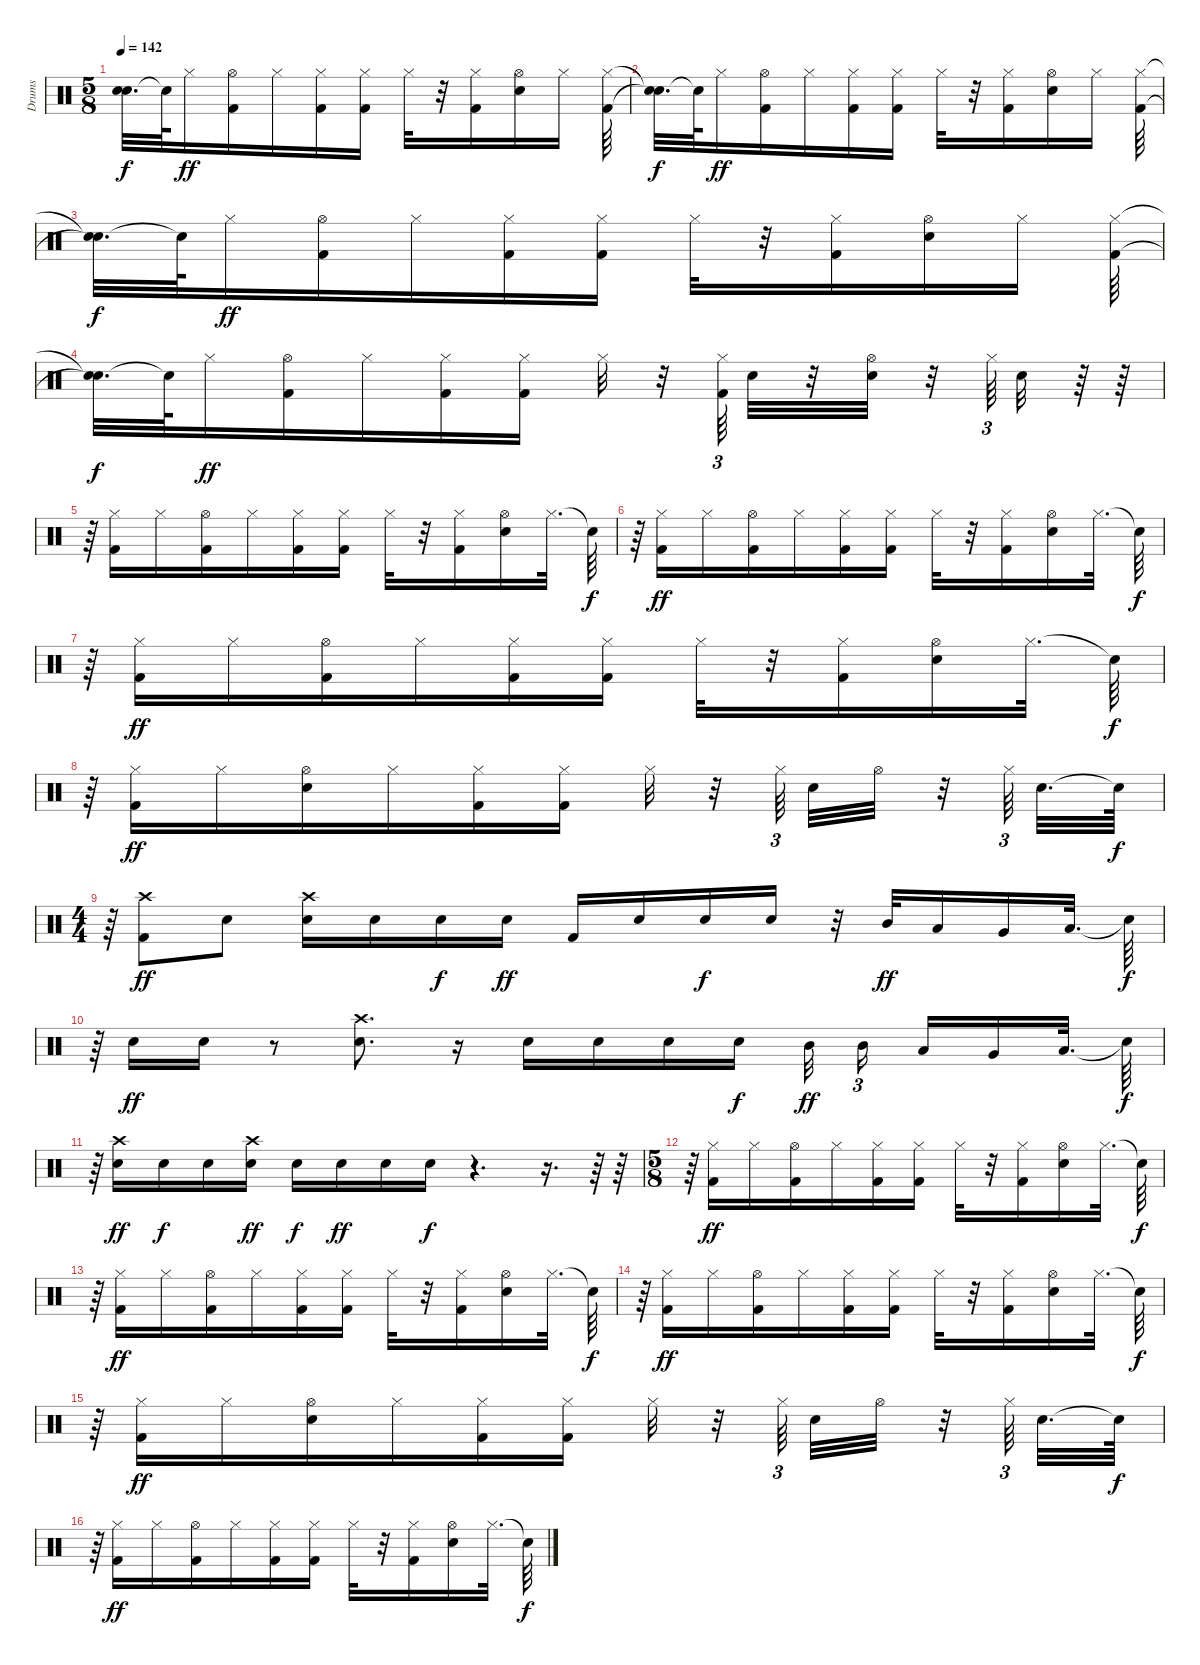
\track ("Drums                               " "Drums     ") {instrument percussion}
\staff {score}
\articulation defaults
\ts (5 8)
\tempo 142
\clef neutral
\ks c
("Snare (hit)"{t} "Snare (hit)"{t}).32{d dy f} "Snare (hit)"{t}.64 "Hi-Hat (closed)".16{dy ff} ("Kick (hit) 2" "Hi-Hat (open)").16 "Hi-Hat (closed)".16 ("Hi-Hat (closed)" "Kick (hit) 2").16 ("Kick (hit) 2" "Hi-Hat (closed)").16 "Hi-Hat (closed)".32 r.32 ("Kick (hit) 2" "Hi-Hat (closed)").16 ("Hi-Hat (open)" "Snare (hit) 2").16 "Hi-Hat (closed)".16 ("Hi-Hat (closed)" "Kick (hit) 2").64 |
("Snare (hit)"{t} "Snare (hit)"{t}).32{d dy f} "Snare (hit)"{t}.64 "Hi-Hat (closed)".16{dy ff} ("Hi-Hat (open)" "Kick (hit) 2").16 "Hi-Hat (closed)".16 ("Hi-Hat (closed)" "Kick (hit) 2").16 ("Kick (hit) 2" "Hi-Hat (closed)").16 "Hi-Hat (closed)".32 r.32 ("Kick (hit) 2" "Hi-Hat (closed)").16 ("Snare (hit) 2" "Hi-Hat (open)").16 "Hi-Hat (closed)".16 ("Kick (hit) 2" "Hi-Hat (closed)").64 |
("Snare (hit)"{t} "Snare (hit)"{t}).32{d dy f} "Snare (hit)"{t}.64 "Hi-Hat (closed)".16{dy ff} ("Hi-Hat (open)" "Kick (hit) 2").16 "Hi-Hat (closed)".16 ("Kick (hit) 2" "Hi-Hat (closed)").16 ("Kick (hit) 2" "Hi-Hat (closed)").16 "Hi-Hat (closed)".32 r.32 ("Kick (hit) 2" "Hi-Hat (closed)").16 ("Hi-Hat (open)" "Snare (hit) 2").16 "Hi-Hat (closed)".16 ("Hi-Hat (closed)" "Kick (hit) 2").64 |
("Snare (hit)"{t} "Snare (hit)"{t}).32{d dy f} "Snare (hit)"{t}.64 "Hi-Hat (closed)".16{dy ff} ("Hi-Hat (open)" "Kick (hit) 2").16 "Hi-Hat (closed)".16 ("Kick (hit) 2" "Hi-Hat (closed)").16 ("Kick (hit) 2" "Hi-Hat (closed)").16 "Hi-Hat (closed)".32 r.32 ("Kick (hit) 2" "Hi-Hat (closed)").64{tu (3 2)} "Snare (hit) 2".32 r.32 ("Hi-Hat (open)" "Snare (hit) 2").32 r.32 "Hi-Hat (closed)".64{tu (3 2)} "Snare (hit) 2".32 r.64 r.64 |
r.64 ("Hi-Hat (closed)" "Kick (hit) 2").16 "Hi-Hat (closed)".16 ("Kick (hit) 2" "Hi-Hat (open)").16 "Hi-Hat (closed)".16 ("Hi-Hat (closed)" "Kick (hit) 2").16 ("Kick (hit) 2" "Hi-Hat (closed)").16 "Hi-Hat (closed)".32 r.32 ("Kick (hit) 2" "Hi-Hat (closed)").16 ("Snare (hit) 2" "Hi-Hat (open)").16 "Hi-Hat (closed)".32{d} "Snare (hit)"{t}.64{dy f} |
r.64 ("Kick (hit) 2" "Hi-Hat (closed)").16{dy ff} "Hi-Hat (closed)".16 ("Hi-Hat (open)" "Kick (hit) 2").16 "Hi-Hat (closed)".16 ("Kick (hit) 2" "Hi-Hat (closed)").16 ("Kick (hit) 2" "Hi-Hat (closed)").16 "Hi-Hat (closed)".32 r.32 ("Kick (hit) 2" "Hi-Hat (closed)").16 ("Hi-Hat (open)" "Snare (hit) 2").16 "Hi-Hat (closed)".32{d} "Snare (hit)"{t}.64{dy f} |
r.64 ("Kick (hit) 2" "Hi-Hat (closed)").16{dy ff} "Hi-Hat (closed)".16 ("Hi-Hat (open)" "Kick (hit) 2").16 "Hi-Hat (closed)".16 ("Kick (hit) 2" "Hi-Hat (closed)").16 ("Kick (hit) 2" "Hi-Hat (closed)").16 "Hi-Hat (closed)".32 r.32 ("Kick (hit) 2" "Hi-Hat (closed)").16 ("Snare (hit) 2" "Hi-Hat (open)").16 "Hi-Hat (closed)".32{d} "Snare (hit)"{t}.64{dy f} |
r.64 ("Hi-Hat (closed)" "Kick (hit) 2").16{dy ff} "Hi-Hat (closed)".16 ("Snare (hit) 2" "Hi-Hat (open)").16 "Hi-Hat (closed)".16 ("Hi-Hat (closed)" "Kick (hit) 2").16 ("Kick (hit) 2" "Hi-Hat (closed)").16 "Hi-Hat (closed)".32 r.32 "Hi-Hat (closed)".64{tu (3 2)} "Snare (hit) 2".32 "Hi-Hat (open)".32 r.32 "Hi-Hat (closed)".64{tu (3 2)} "Snare (hit) 2".32{d} "Snare (hit)"{t}.64{dy f} |
\ts (4 4)
r.64 ("Kick (hit) 2" "Crash high (hit)").8{dy ff} "Snare (hit) 2".8 ("Snare (hit) 2" "Crash high (hit)").16 "Snare (hit) 2".16 "Snare (hit) 2".16{dy f} "Snare (hit) 2".16{dy ff} "Kick (hit) 2".16 "Snare (hit) 2".16 "Snare (hit) 2".16{dy f} "Snare (hit) 2".16 r.32 "Mid Tom (hit)".32{dy ff} "Low Tom (hit)".16 "Very Low Tom (hit)".16 "Low Floor Tom (hit)".32{d} "Snare (hit)"{t}.64{dy f} |
r.64 "Snare (hit) 2".16{dy ff} "Snare (hit) 2".16 r.8 ("Snare (hit) 2" "Crash high (hit)").8{d} r.16 "Snare (hit) 2".16 "Snare (hit) 2".16 "Snare (hit) 2".16 "Snare (hit) 2".16{dy f} "Mid Tom (hit)".32{dy ff} "Mid Tom (hit)".16{tu (3 2)} "Low Tom (hit)".16 "Very Low Tom (hit)".16 "Low Floor Tom (hit)".32{d} "Snare (hit)"{t}.64{dy f} |
r.64 ("Snare (hit) 2" "Crash high (hit)").16{dy ff} "Snare (hit) 2".16{dy f} "Snare (hit) 2".16 ("Snare (hit) 2" "Crash high (hit)").16{dy ff} "Snare (hit) 2".16{dy f} "Snare (hit) 2".16{dy ff} "Snare (hit) 2".16 "Snare (hit) 2".16{dy f} r.4{d} r.16{d} r.64 r.64 |
\ts (5 8)
r.64 ("Hi-Hat (closed)" "Kick (hit) 2").16{dy ff} "Hi-Hat (closed)".16 ("Hi-Hat (open)" "Kick (hit) 2").16 "Hi-Hat (closed)".16 ("Hi-Hat (closed)" "Kick (hit) 2").16 ("Kick (hit) 2" "Hi-Hat (closed)").16 "Hi-Hat (closed)".32 r.32 ("Kick (hit) 2" "Hi-Hat (closed)").16 ("Snare (hit) 2" "Hi-Hat (open)").16 "Hi-Hat (closed)".32{d} "Snare (hit)"{t}.64{dy f} |
r.64 ("Hi-Hat (closed)" "Kick (hit) 2").16{dy ff} "Hi-Hat (closed)".16 ("Hi-Hat (open)" "Kick (hit) 2").16 "Hi-Hat (closed)".16 ("Hi-Hat (closed)" "Kick (hit) 2").16 ("Kick (hit) 2" "Hi-Hat (closed)").16 "Hi-Hat (closed)".32 r.32 ("Kick (hit) 2" "Hi-Hat (closed)").16 ("Snare (hit) 2" "Hi-Hat (open)").16 "Hi-Hat (closed)".32{d} "Snare (hit)"{t}.64{dy f} |
r.64 ("Hi-Hat (closed)" "Kick (hit) 2").16{dy ff} "Hi-Hat (closed)".16 ("Hi-Hat (open)" "Kick (hit) 2").16 "Hi-Hat (closed)".16 ("Hi-Hat (closed)" "Kick (hit) 2").16 ("Kick (hit) 2" "Hi-Hat (closed)").16 "Hi-Hat (closed)".32 r.32 ("Kick (hit) 2" "Hi-Hat (closed)").16 ("Hi-Hat (open)" "Snare (hit) 2").16 "Hi-Hat (closed)".32{d} "Snare (hit)"{t}.64{dy f} |
r.64 ("Hi-Hat (closed)" "Kick (hit) 2").16{dy ff} "Hi-Hat (closed)".16 ("Hi-Hat (open)" "Snare (hit) 2").16 "Hi-Hat (closed)".16 ("Hi-Hat (closed)" "Kick (hit) 2").16 ("Kick (hit) 2" "Hi-Hat (closed)").16 "Hi-Hat (closed)".32 r.32 "Hi-Hat (closed)".64{tu (3 2)} "Snare (hit) 2".32 "Hi-Hat (open)".32 r.32 "Hi-Hat (closed)".64{tu (3 2)} "Snare (hit) 2".32{d} "Snare (hit)"{t}.64{dy f} |
r.64 ("Kick (hit) 2" "Hi-Hat (closed)").16{dy ff} "Hi-Hat (closed)".16 ("Hi-Hat (open)" "Kick (hit) 2").16 "Hi-Hat (closed)".16 ("Kick (hit) 2" "Hi-Hat (closed)").16 ("Kick (hit) 2" "Hi-Hat (closed)").16 "Hi-Hat (closed)".32 r.32 ("Kick (hit) 2" "Hi-Hat (closed)").16 ("Snare (hit) 2" "Hi-Hat (open)").16 "Hi-Hat (closed)".32{d} "Snare (hit)"{t}.64{dy f}
